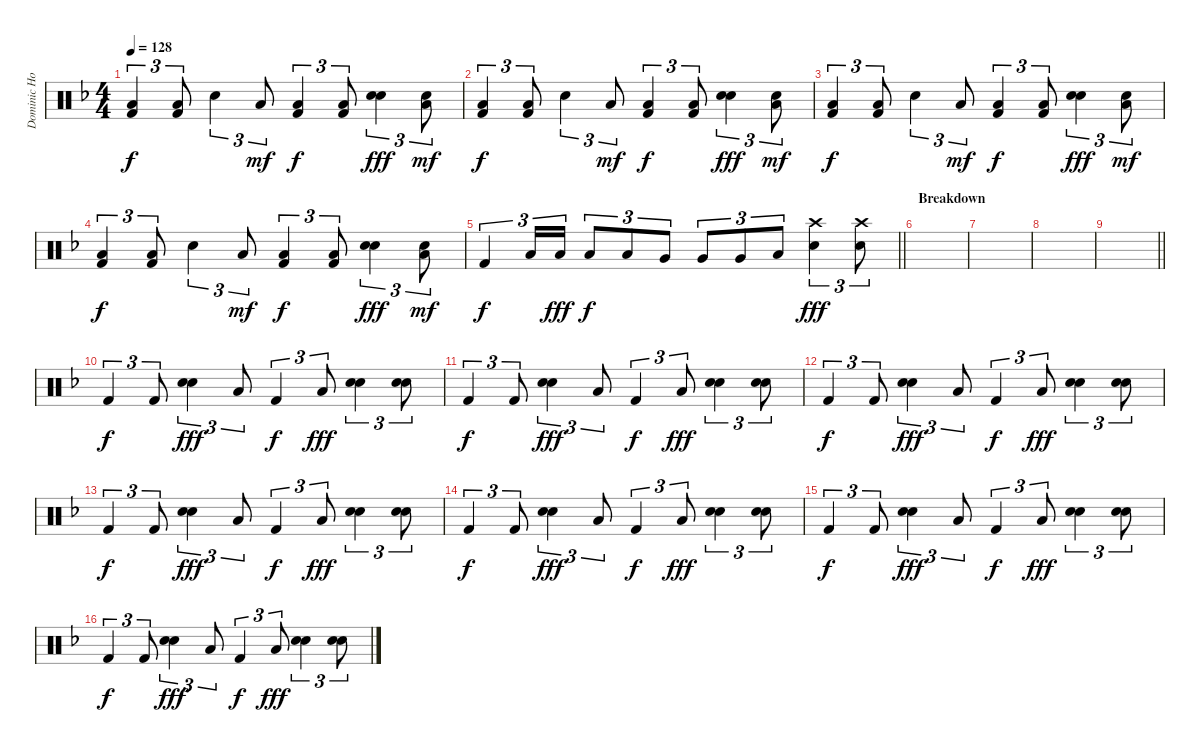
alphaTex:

\track ("Dominic Howard Drums" "Dominic Ho") {instrument percussion}
\staff {score}
\articulation defaults
\ts (4 4)
\tempo 128
\clef neutral
\ks dminor
("Low Floor Tom (hit)" "Kick (hit) 2").4{tu (3 2) dy f} ("Low Floor Tom (hit)" "Kick (hit) 2").8{tu (3 2)} "Snare (hit) 2".4{tu (3 2)} "Low Tom (hit)".8{tu (3 2) dy mf} ("Low Floor Tom (hit)" "Kick (hit) 2").4{tu (3 2) dy f} ("Low Floor Tom (hit)" "Kick (hit) 2").8{tu (3 2)} ("Hand Clap (hit)" "Snare (hit) 2").4{tu (3 2) dy fff} ("Hand Clap (hit)" "Low Tom (hit)").8{tu (3 2) dy mf} |
("Low Floor Tom (hit)" "Kick (hit) 2").4{tu (3 2) dy f} ("Low Floor Tom (hit)" "Kick (hit) 2").8{tu (3 2)} "Snare (hit) 2".4{tu (3 2)} "Low Tom (hit)".8{tu (3 2) dy mf} ("Low Floor Tom (hit)" "Kick (hit) 2").4{tu (3 2) dy f} ("Low Floor Tom (hit)" "Kick (hit) 2").8{tu (3 2)} ("Hand Clap (hit)" "Snare (hit) 2").4{tu (3 2) dy fff} ("Hand Clap (hit)" "Low Tom (hit)").8{tu (3 2) dy mf} |
("Low Floor Tom (hit)" "Kick (hit) 2").4{tu (3 2) dy f} ("Low Floor Tom (hit)" "Kick (hit) 2").8{tu (3 2)} "Snare (hit) 2".4{tu (3 2)} "Low Tom (hit)".8{tu (3 2) dy mf} ("Low Floor Tom (hit)" "Kick (hit) 2").4{tu (3 2) dy f} ("Low Floor Tom (hit)" "Kick (hit) 2").8{tu (3 2)} ("Hand Clap (hit)" "Snare (hit) 2").4{tu (3 2) dy fff} ("Hand Clap (hit)" "Low Tom (hit)").8{tu (3 2) dy mf} |
("Low Floor Tom (hit)" "Kick (hit) 2").4{tu (3 2) dy f} ("Low Floor Tom (hit)" "Kick (hit) 2").8{tu (3 2)} "Snare (hit) 2".4{tu (3 2)} "Low Tom (hit)".8{tu (3 2) dy mf} ("Low Floor Tom (hit)" "Kick (hit) 2").4{tu (3 2) dy f} ("Low Floor Tom (hit)" "Kick (hit) 2").8{tu (3 2)} ("Hand Clap (hit)" "Snare (hit) 2").4{tu (3 2) dy fff} ("Hand Clap (hit)" "Low Tom (hit)").8{tu (3 2) dy mf} |
\barLineRight lightlight "Kick (hit) 2".4{tu (3 2) dy f} "Low Tom (hit)".16{tu (3 2)} "Low Tom (hit)".16{tu (3 2) dy fff} "Low Tom (hit)".8{tu (3 2) dy f} "Low Tom (hit)".8{tu (3 2)} "Very Low Tom (hit)".8{tu (3 2)} "Very Low Tom (hit)".8{tu (3 2)} "Very Low Tom (hit)".8{tu (3 2)} "Low Floor Tom (hit)".8{tu (3 2)}
("Crash high (hit)" "Snare (hit) 2").4{tu (3 2) dy fff} ("Crash high (hit)" "Snare (hit) 2").8{tu (3 2)} |
\section ("" "Breakdown")
|
|
|
\barLineRight lightlight
|
"Kick (hit) 2".4{tu (3 2) dy f} "Kick (hit) 2".8{tu (3 2)} ("Electric Snare (hit)" "Snare (hit) 2").4{tu (3 2) dy fff} "Low Floor Tom (hit)".8{tu (3 2)} "Kick (hit) 2".4{tu (3 2) dy f} "Low Floor Tom (hit)".8{tu (3 2) dy fff} ("Hand Clap (hit)" "Snare (hit) 2").4{tu (3 2)} ("Hand Clap (hit)" "Snare (hit) 2").8{tu (3 2)} |
"Kick (hit) 2".4{tu (3 2) dy f} "Kick (hit) 2".8{tu (3 2)} ("Electric Snare (hit)" "Snare (hit) 2").4{tu (3 2) dy fff} "Low Floor Tom (hit)".8{tu (3 2)} "Kick (hit) 2".4{tu (3 2) dy f} "Low Floor Tom (hit)".8{tu (3 2) dy fff} ("Hand Clap (hit)" "Snare (hit) 2").4{tu (3 2)} ("Hand Clap (hit)" "Snare (hit) 2").8{tu (3 2)} |
"Kick (hit) 2".4{tu (3 2) dy f} "Kick (hit) 2".8{tu (3 2)} ("Electric Snare (hit)" "Snare (hit) 2").4{tu (3 2) dy fff} "Low Floor Tom (hit)".8{tu (3 2)} "Kick (hit) 2".4{tu (3 2) dy f} "Low Floor Tom (hit)".8{tu (3 2) dy fff} ("Hand Clap (hit)" "Snare (hit) 2").4{tu (3 2)} ("Hand Clap (hit)" "Snare (hit) 2").8{tu (3 2)} |
"Kick (hit) 2".4{tu (3 2) dy f} "Kick (hit) 2".8{tu (3 2)} ("Electric Snare (hit)" "Snare (hit) 2").4{tu (3 2) dy fff} "Low Floor Tom (hit)".8{tu (3 2)} "Kick (hit) 2".4{tu (3 2) dy f} "Low Floor Tom (hit)".8{tu (3 2) dy fff} ("Hand Clap (hit)" "Snare (hit) 2").4{tu (3 2)} ("Hand Clap (hit)" "Snare (hit) 2").8{tu (3 2)} |
"Kick (hit) 2".4{tu (3 2) dy f} "Kick (hit) 2".8{tu (3 2)} ("Electric Snare (hit)" "Snare (hit) 2").4{tu (3 2) dy fff} "Low Floor Tom (hit)".8{tu (3 2)} "Kick (hit) 2".4{tu (3 2) dy f} "Low Floor Tom (hit)".8{tu (3 2) dy fff} ("Hand Clap (hit)" "Snare (hit) 2").4{tu (3 2)} ("Hand Clap (hit)" "Snare (hit) 2").8{tu (3 2)} |
"Kick (hit) 2".4{tu (3 2) dy f} "Kick (hit) 2".8{tu (3 2)} ("Electric Snare (hit)" "Snare (hit) 2").4{tu (3 2) dy fff} "Low Floor Tom (hit)".8{tu (3 2)} "Kick (hit) 2".4{tu (3 2) dy f} "Low Floor Tom (hit)".8{tu (3 2) dy fff} ("Hand Clap (hit)" "Snare (hit) 2").4{tu (3 2)} ("Hand Clap (hit)" "Snare (hit) 2").8{tu (3 2)} |
"Kick (hit) 2".4{tu (3 2) dy f} "Kick (hit) 2".8{tu (3 2)} ("Electric Snare (hit)" "Snare (hit) 2").4{tu (3 2) dy fff} "Low Floor Tom (hit)".8{tu (3 2)} "Kick (hit) 2".4{tu (3 2) dy f} "Low Floor Tom (hit)".8{tu (3 2) dy fff} ("Hand Clap (hit)" "Snare (hit) 2").4{tu (3 2)} ("Hand Clap (hit)" "Snare (hit) 2").8{tu (3 2)}
